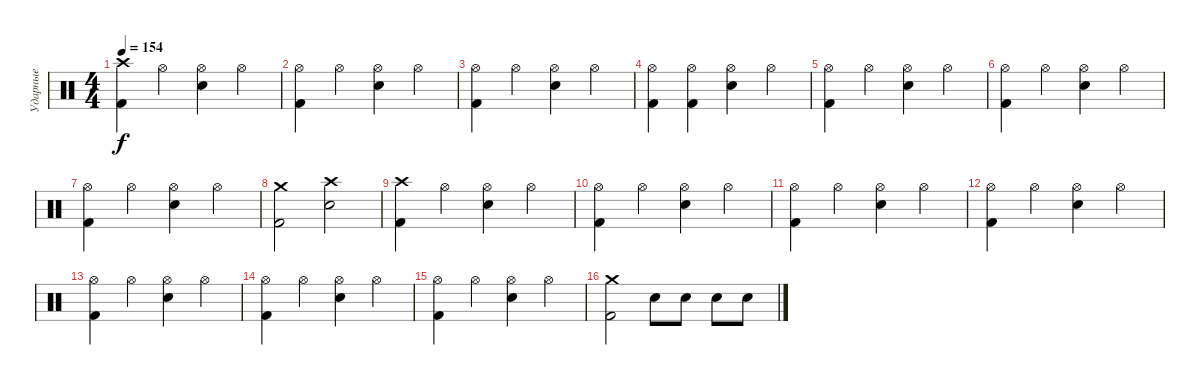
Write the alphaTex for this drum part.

\track ("Ударные" "Ударные") {instrument percussion}
\staff {score}
\articulation defaults
\ts (4 4)
\tempo 154
\clef neutral
\ks c
("Crash high (hit)" "Kick (hit) 2").4{dy f} "Hi-Hat (open)".4 ("Hi-Hat (open)" "Snare (hit) 2").4 "Hi-Hat (open)".4 |
("Hi-Hat (open)" "Kick (hit) 2").4 "Hi-Hat (open)".4 ("Hi-Hat (open)" "Snare (hit) 2").4 "Hi-Hat (open)".4 |
("Hi-Hat (open)" "Kick (hit) 2").4 "Hi-Hat (open)".4 ("Hi-Hat (open)" "Snare (hit) 2").4 "Hi-Hat (open)".4 |
("Hi-Hat (open)" "Kick (hit) 2").4 ("Hi-Hat (open)" "Kick (hit) 2").4 ("Hi-Hat (open)" "Snare (hit) 2").4 "Hi-Hat (open)".4 |
("Hi-Hat (open)" "Kick (hit) 2").4 "Hi-Hat (open)".4 ("Hi-Hat (open)" "Snare (hit) 2").4 "Hi-Hat (open)".4 |
("Hi-Hat (open)" "Kick (hit) 2").4 "Hi-Hat (open)".4 ("Hi-Hat (open)" "Snare (hit) 2").4 "Hi-Hat (open)".4 |
("Hi-Hat (open)" "Kick (hit) 2").4 "Hi-Hat (open)".4 ("Hi-Hat (open)" "Snare (hit) 2").4 "Hi-Hat (open)".4 |
("Crash medium (hit)" "Kick (hit) 2").2 ("Crash high (hit)" "Snare (hit) 2").2 |
("Crash high (hit)" "Kick (hit) 2").4 "Hi-Hat (open)".4 ("Hi-Hat (open)" "Snare (hit) 2").4 "Hi-Hat (open)".4 |
("Hi-Hat (open)" "Kick (hit) 2").4 "Hi-Hat (open)".4 ("Hi-Hat (open)" "Snare (hit) 2").4 "Hi-Hat (open)".4 |
("Hi-Hat (open)" "Kick (hit) 2").4 "Hi-Hat (open)".4 ("Hi-Hat (open)" "Snare (hit) 2").4 "Hi-Hat (open)".4 |
("Hi-Hat (open)" "Kick (hit) 2").4 "Hi-Hat (open)".4 ("Hi-Hat (open)" "Snare (hit) 2").4 "Hi-Hat (open)".4 |
("Hi-Hat (open)" "Kick (hit) 2").4 "Hi-Hat (open)".4 ("Hi-Hat (open)" "Snare (hit) 2").4 "Hi-Hat (open)".4 |
("Hi-Hat (open)" "Kick (hit) 2").4 "Hi-Hat (open)".4 ("Hi-Hat (open)" "Snare (hit) 2").4 "Hi-Hat (open)".4 |
("Hi-Hat (open)" "Kick (hit) 2").4 "Hi-Hat (open)".4 ("Hi-Hat (open)" "Snare (hit) 2").4 "Hi-Hat (open)".4 |
("Crash medium (hit)" "Kick (hit) 2").2 "Snare (hit) 2".8 "Snare (hit) 2".8 "Snare (hit) 2".8 "Snare (hit) 2".8
